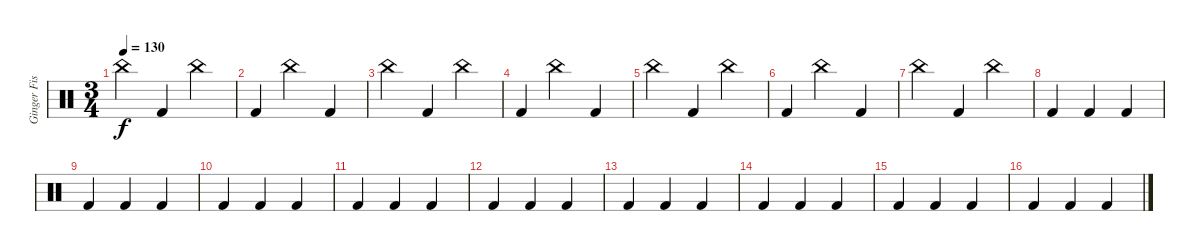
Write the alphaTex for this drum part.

\track ("Ginger Fish" "Ginger Fis") {instrument percussion}
\staff {score}
\articulation defaults
\ts (3 4)
\tempo 130
\clef neutral
\ks c "China (hit)".4{dy f} "Kick (hit) 2".4 "China (hit)".4
|
"Kick (hit) 2".4 "China (hit)".4 "Kick (hit) 2".4 |
"China (hit)".4 "Kick (hit) 2".4 "China (hit)".4 |
"Kick (hit) 2".4 "China (hit)".4 "Kick (hit) 2".4 |
"China (hit)".4 "Kick (hit) 2".4 "China (hit)".4 |
"Kick (hit) 2".4 "China (hit)".4 "Kick (hit) 2".4 |
"China (hit)".4 "Kick (hit) 2".4 "China (hit)".4 |
"Kick (hit) 2".4 "Kick (hit) 2".4 "Kick (hit) 2".4 |
"Kick (hit) 2".4 "Kick (hit) 2".4 "Kick (hit) 2".4 |
"Kick (hit) 2".4 "Kick (hit) 2".4 "Kick (hit) 2".4 |
"Kick (hit) 2".4 "Kick (hit) 2".4 "Kick (hit) 2".4 |
"Kick (hit) 2".4 "Kick (hit) 2".4 "Kick (hit) 2".4 |
"Kick (hit) 2".4 "Kick (hit) 2".4 "Kick (hit) 2".4 |
"Kick (hit) 2".4 "Kick (hit) 2".4 "Kick (hit) 2".4 |
"Kick (hit) 2".4 "Kick (hit) 2".4 "Kick (hit) 2".4 |
"Kick (hit) 2".4 "Kick (hit) 2".4 "Kick (hit) 2".4
